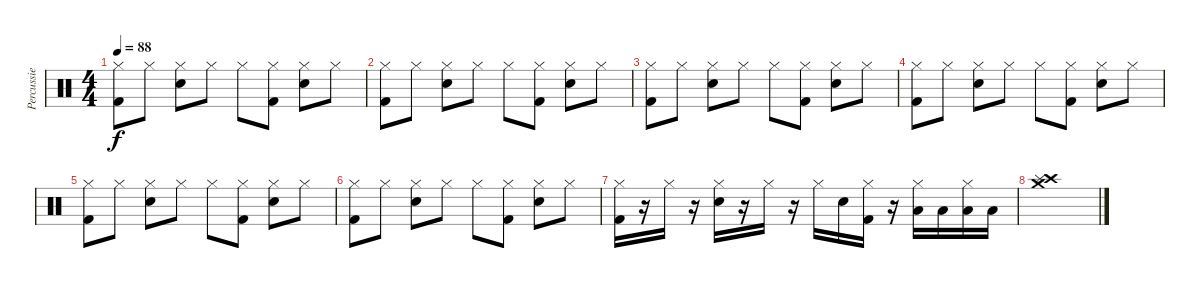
\track ("Percussie" "Percussie") {instrument percussion}
\staff {score}
\articulation defaults
\ts (4 4)
\tempo 88
\clef neutral
\ks c
("Hi-Hat (closed)" "Kick (hit) 2").8{dy f} "Hi-Hat (closed)".8 ("Hi-Hat (closed)" "Snare (hit) 2").8 "Hi-Hat (closed)".8 "Hi-Hat (closed)".8 ("Hi-Hat (closed)" "Kick (hit) 2").8 ("Hi-Hat (closed)" "Snare (hit) 2").8 "Hi-Hat (closed)".8 |
("Hi-Hat (closed)" "Kick (hit) 2").8 "Hi-Hat (closed)".8 ("Hi-Hat (closed)" "Snare (hit) 2").8 "Hi-Hat (closed)".8 "Hi-Hat (closed)".8 ("Hi-Hat (closed)" "Kick (hit) 2").8 ("Hi-Hat (closed)" "Snare (hit) 2").8 "Hi-Hat (closed)".8 |
("Hi-Hat (closed)" "Kick (hit) 2").8 "Hi-Hat (closed)".8 ("Hi-Hat (closed)" "Snare (hit) 2").8 "Hi-Hat (closed)".8 "Hi-Hat (closed)".8 ("Hi-Hat (closed)" "Kick (hit) 2").8 ("Hi-Hat (closed)" "Snare (hit) 2").8 "Hi-Hat (closed)".8 |
("Hi-Hat (closed)" "Kick (hit) 2").8 "Hi-Hat (closed)".8 ("Hi-Hat (closed)" "Snare (hit) 2").8 "Hi-Hat (closed)".8 "Hi-Hat (closed)".8 ("Hi-Hat (closed)" "Kick (hit) 2").8 ("Hi-Hat (closed)" "Snare (hit) 2").8 "Hi-Hat (closed)".8 |
("Hi-Hat (closed)" "Kick (hit) 2").8 "Hi-Hat (closed)".8 ("Hi-Hat (closed)" "Snare (hit) 2").8 "Hi-Hat (closed)".8 "Hi-Hat (closed)".8 ("Hi-Hat (closed)" "Kick (hit) 2").8 ("Hi-Hat (closed)" "Snare (hit) 2").8 "Hi-Hat (closed)".8 |
("Hi-Hat (closed)" "Kick (hit) 2").8 "Hi-Hat (closed)".8 ("Hi-Hat (closed)" "Snare (hit) 2").8 "Hi-Hat (closed)".8 "Hi-Hat (closed)".8 ("Hi-Hat (closed)" "Kick (hit) 2").8 ("Hi-Hat (closed)" "Snare (hit) 2").8 "Hi-Hat (closed)".8 |
("Hi-Hat (closed)" "Kick (hit) 2").16 r.16 "Hi-Hat (closed)".16 r.16 ("Hi-Hat (closed)" "Snare (hit) 2").16 r.16 "Hi-Hat (closed)".16 r.16 "Hi-Hat (closed)".16 "Snare (hit) 2".16 ("Hi-Hat (closed)" "Kick (hit) 2").16 r.16 ("Hi-Hat (closed)" "Low Tom (hit)").16 "Low Tom (hit)".16 ("Hi-Hat (closed)" "Low Floor Tom (hit)").16 "Low Floor Tom (hit)".16 |
("Crash high (hit)" "Crash medium (hit)" "Splash (hit)").1
